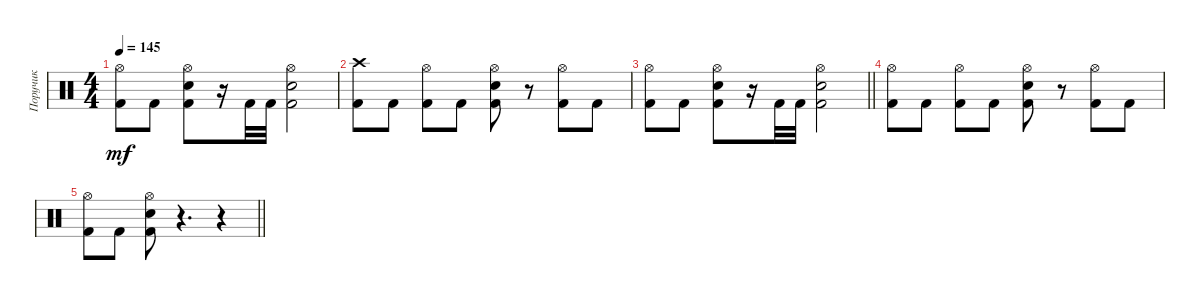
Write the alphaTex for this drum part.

\track ("Поручик" "Поручик") {instrument percussion}
\staff {score}
\articulation defaults
\ts (4 4)
\tempo 145
\clef neutral
\ks c
("Hi-Hat (open)" "Kick (hit) 2").8{dy mf} "Kick (hit) 2".8 ("Hi-Hat (open)" "Electric Snare (hit)" "Kick (hit) 2").8 r.16 "Kick (hit) 2".32 "Kick (hit) 2".32 ("Hi-Hat (open)" "Electric Snare (hit)" "Kick (hit) 2").2 |
("Crash high (hit)" "Kick (hit) 2").8 "Kick (hit) 2".8 ("Hi-Hat (open)" "Kick (hit) 2").8 "Kick (hit) 2".8 ("Hi-Hat (open)" "Electric Snare (hit)" "Kick (hit) 2").8 r.8 ("Hi-Hat (open)" "Kick (hit) 2").8 "Kick (hit) 2".8 |
\barLineRight lightlight
("Hi-Hat (open)" "Kick (hit) 2").8 "Kick (hit) 2".8 ("Hi-Hat (open)" "Electric Snare (hit)" "Kick (hit) 2").8 r.16 "Kick (hit) 2".32 "Kick (hit) 2".32 ("Hi-Hat (open)" "Electric Snare (hit)" "Kick (hit) 2").2 |
("Hi-Hat (open)" "Kick (hit) 2").8 "Kick (hit) 2".8 ("Hi-Hat (open)" "Kick (hit) 2").8 "Kick (hit) 2".8 ("Hi-Hat (open)" "Electric Snare (hit)" "Kick (hit) 2").8 r.8 ("Hi-Hat (open)" "Kick (hit) 2").8 "Kick (hit) 2".8 |
\barLineRight lightlight
("Hi-Hat (open)" "Kick (hit) 2").8 "Kick (hit) 2".8 ("Hi-Hat (open)" "Electric Snare (hit)" "Kick (hit) 2").8 r.4{d} r.4
